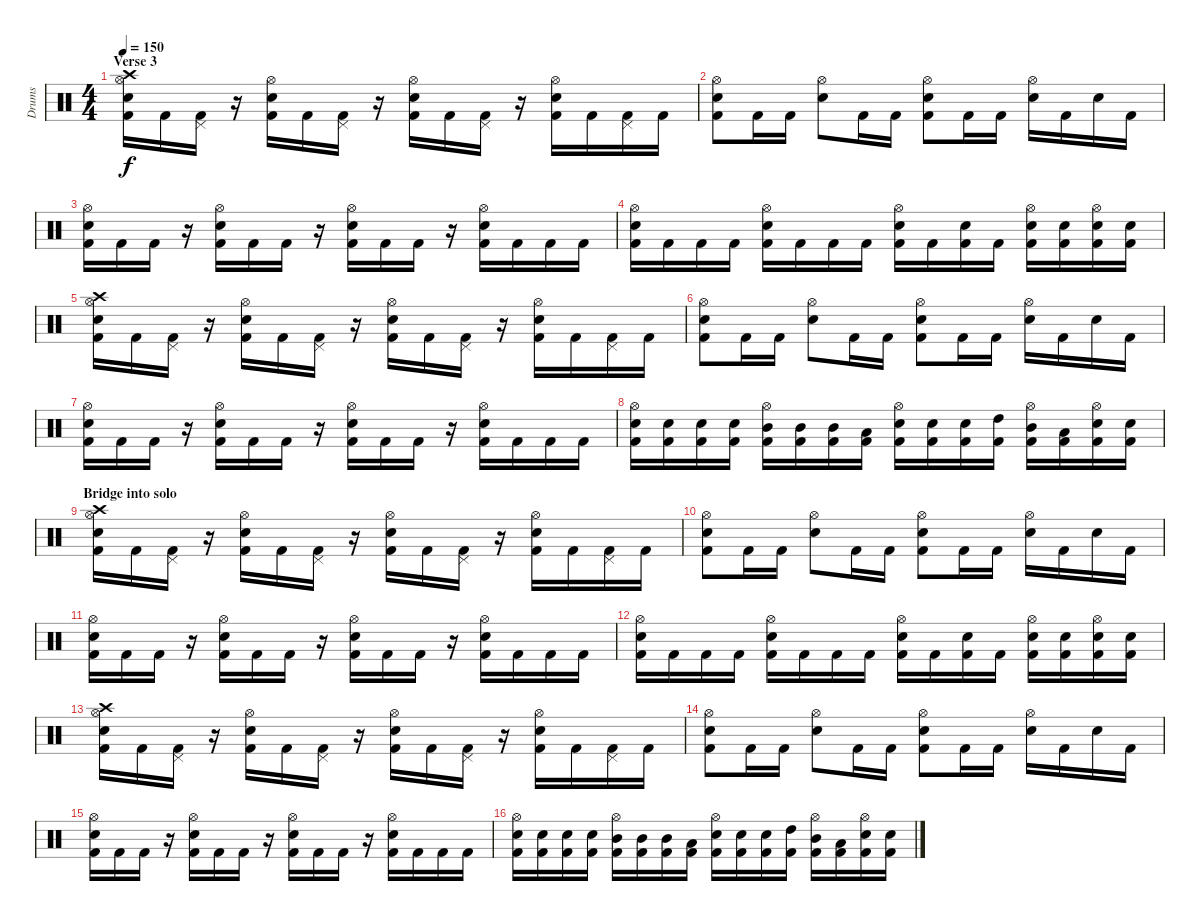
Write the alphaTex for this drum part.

\track ("Drums" "Drums") {instrument percussion}
\staff {score}
\articulation defaults
\ts (4 4)
\section ("" "Verse 3")
\tempo 150
\clef neutral
\ks c
("Crash high (hit)" "Hi-Hat (open)" "Electric Snare (hit)" "Kick (hit) 2").16{dy f} "Kick (hit) 2".16 ("Pedal Hi-Hat (hit)" "Kick (hit) 2").16 r.16 ("Hi-Hat (open)" "Electric Snare (hit)" "Kick (hit) 2").16 "Kick (hit) 2".16 ("Pedal Hi-Hat (hit)" "Kick (hit) 2").16 r.16 ("Hi-Hat (open)" "Electric Snare (hit)" "Kick (hit) 2").16 "Kick (hit) 2".16 ("Pedal Hi-Hat (hit)" "Kick (hit) 2").16 r.16 ("Hi-Hat (open)" "Electric Snare (hit)" "Kick (hit) 2").16 "Kick (hit) 2".16 ("Pedal Hi-Hat (hit)" "Kick (hit) 2").16 "Kick (hit) 2".16 |
("Hi-Hat (open)" "Electric Snare (hit)" "Kick (hit) 2").8 "Kick (hit) 2".16 "Kick (hit) 2".16 ("Hi-Hat (open)" "Electric Snare (hit)").8 "Kick (hit) 2".16 "Kick (hit) 2".16 ("Hi-Hat (open)" "Electric Snare (hit)" "Kick (hit) 2").8 "Kick (hit) 2".16 "Kick (hit) 2".16 ("Hi-Hat (open)" "Electric Snare (hit)").16 "Kick (hit) 2".16 "Electric Snare (hit)".16 "Kick (hit) 2".16 |
("Hi-Hat (open)" "Electric Snare (hit)" "Kick (hit) 2").16 "Kick (hit) 2".16 "Kick (hit) 2".16 r.16 ("Hi-Hat (open)" "Electric Snare (hit)" "Kick (hit) 2").16 "Kick (hit) 2".16 "Kick (hit) 2".16 r.16 ("Hi-Hat (open)" "Electric Snare (hit)" "Kick (hit) 2").16 "Kick (hit) 2".16 "Kick (hit) 2".16 r.16 ("Hi-Hat (open)" "Electric Snare (hit)" "Kick (hit) 2").16 "Kick (hit) 2".16 "Kick (hit) 2".16 "Kick (hit) 2".16 |
("Hi-Hat (open)" "Electric Snare (hit)" "Kick (hit) 2").16 "Kick (hit) 2".16 "Kick (hit) 2".16 "Kick (hit) 2".16 ("Hi-Hat (open)" "Electric Snare (hit)" "Kick (hit) 2").16 "Kick (hit) 2".16 "Kick (hit) 2".16 "Kick (hit) 2".16 ("Hi-Hat (open)" "Electric Snare (hit)" "Kick (hit) 2").16 "Kick (hit) 2".16 ("Electric Snare (hit)" "Kick (hit) 2").16 "Kick (hit) 2".16 ("Hi-Hat (open)" "Electric Snare (hit)" "Kick (hit) 2").16 ("Electric Snare (hit)" "Kick (hit) 2").16 ("Hi-Hat (open)" "Electric Snare (hit)" "Kick (hit) 2").16 ("Electric Snare (hit)" "Kick (hit) 2").16 |
("Crash high (hit)" "Hi-Hat (open)" "Electric Snare (hit)" "Kick (hit) 2").16 "Kick (hit) 2".16 ("Pedal Hi-Hat (hit)" "Kick (hit) 2").16 r.16 ("Hi-Hat (open)" "Electric Snare (hit)" "Kick (hit) 2").16 "Kick (hit) 2".16 ("Pedal Hi-Hat (hit)" "Kick (hit) 2").16 r.16 ("Hi-Hat (open)" "Electric Snare (hit)" "Kick (hit) 2").16 "Kick (hit) 2".16 ("Pedal Hi-Hat (hit)" "Kick (hit) 2").16 r.16 ("Hi-Hat (open)" "Electric Snare (hit)" "Kick (hit) 2").16 "Kick (hit) 2".16 ("Pedal Hi-Hat (hit)" "Kick (hit) 2").16 "Kick (hit) 2".16 |
("Hi-Hat (open)" "Electric Snare (hit)" "Kick (hit) 2").8 "Kick (hit) 2".16 "Kick (hit) 2".16 ("Hi-Hat (open)" "Electric Snare (hit)").8 "Kick (hit) 2".16 "Kick (hit) 2".16 ("Hi-Hat (open)" "Electric Snare (hit)" "Kick (hit) 2").8 "Kick (hit) 2".16 "Kick (hit) 2".16 ("Hi-Hat (open)" "Electric Snare (hit)").16 "Kick (hit) 2".16 "Electric Snare (hit)".16 "Kick (hit) 2".16 |
("Hi-Hat (open)" "Electric Snare (hit)" "Kick (hit) 2").16 "Kick (hit) 2".16 "Kick (hit) 2".16 r.16 ("Hi-Hat (open)" "Electric Snare (hit)" "Kick (hit) 2").16 "Kick (hit) 2".16 "Kick (hit) 2".16 r.16 ("Hi-Hat (open)" "Electric Snare (hit)" "Kick (hit) 2").16 "Kick (hit) 2".16 "Kick (hit) 2".16 r.16 ("Hi-Hat (open)" "Electric Snare (hit)" "Kick (hit) 2").16 "Kick (hit) 2".16 "Kick (hit) 2".16 "Kick (hit) 2".16 |
("Hi-Hat (open)" "Electric Snare (hit)" "Kick (hit) 2").16 ("Electric Snare (hit)" "Kick (hit) 2").16 ("Electric Snare (hit)" "Kick (hit) 2").16 ("Electric Snare (hit)" "Kick (hit) 2").16 ("Hi-Hat (open)" "Mid Tom (hit)" "Kick (hit) 2").16 ("Mid Tom (hit)" "Kick (hit) 2").16 ("Mid Tom (hit)" "Kick (hit) 2").16 ("Low Tom (hit)" "Kick (hit) 2").16 ("Hi-Hat (open)" "Electric Snare (hit)" "Kick (hit) 2").16 ("Electric Snare (hit)" "Kick (hit) 2").16 ("Electric Snare (hit)" "Kick (hit) 2").16 ("High Tom (hit)" "Kick (hit) 2").16 ("Hi-Hat (open)" "Mid Tom (hit)" "Kick (hit) 2").16 ("Low Tom (hit)" "Kick (hit) 2").16 ("Hi-Hat (open)" "Electric Snare (hit)" "Kick (hit) 2").16 ("Electric Snare (hit)" "Kick (hit) 2").16 |
\section ("" "Bridge into solo")
("Crash high (hit)" "Hi-Hat (open)" "Electric Snare (hit)" "Kick (hit) 2").16 "Kick (hit) 2".16 ("Pedal Hi-Hat (hit)" "Kick (hit) 2").16 r.16 ("Hi-Hat (open)" "Electric Snare (hit)" "Kick (hit) 2").16 "Kick (hit) 2".16 ("Pedal Hi-Hat (hit)" "Kick (hit) 2").16 r.16 ("Hi-Hat (open)" "Electric Snare (hit)" "Kick (hit) 2").16 "Kick (hit) 2".16 ("Pedal Hi-Hat (hit)" "Kick (hit) 2").16 r.16 ("Hi-Hat (open)" "Electric Snare (hit)" "Kick (hit) 2").16 "Kick (hit) 2".16 ("Pedal Hi-Hat (hit)" "Kick (hit) 2").16 "Kick (hit) 2".16 |
("Hi-Hat (open)" "Electric Snare (hit)" "Kick (hit) 2").8 "Kick (hit) 2".16 "Kick (hit) 2".16 ("Hi-Hat (open)" "Electric Snare (hit)").8 "Kick (hit) 2".16 "Kick (hit) 2".16 ("Hi-Hat (open)" "Electric Snare (hit)" "Kick (hit) 2").8 "Kick (hit) 2".16 "Kick (hit) 2".16 ("Hi-Hat (open)" "Electric Snare (hit)").16 "Kick (hit) 2".16 "Electric Snare (hit)".16 "Kick (hit) 2".16 |
("Hi-Hat (open)" "Electric Snare (hit)" "Kick (hit) 2").16 "Kick (hit) 2".16 "Kick (hit) 2".16 r.16 ("Hi-Hat (open)" "Electric Snare (hit)" "Kick (hit) 2").16 "Kick (hit) 2".16 "Kick (hit) 2".16 r.16 ("Hi-Hat (open)" "Electric Snare (hit)" "Kick (hit) 2").16 "Kick (hit) 2".16 "Kick (hit) 2".16 r.16 ("Hi-Hat (open)" "Electric Snare (hit)" "Kick (hit) 2").16 "Kick (hit) 2".16 "Kick (hit) 2".16 "Kick (hit) 2".16 |
("Hi-Hat (open)" "Electric Snare (hit)" "Kick (hit) 2").16 "Kick (hit) 2".16 "Kick (hit) 2".16 "Kick (hit) 2".16 ("Hi-Hat (open)" "Electric Snare (hit)" "Kick (hit) 2").16 "Kick (hit) 2".16 "Kick (hit) 2".16 "Kick (hit) 2".16 ("Hi-Hat (open)" "Electric Snare (hit)" "Kick (hit) 2").16 "Kick (hit) 2".16 ("Electric Snare (hit)" "Kick (hit) 2").16 "Kick (hit) 2".16 ("Hi-Hat (open)" "Electric Snare (hit)" "Kick (hit) 2").16 ("Electric Snare (hit)" "Kick (hit) 2").16 ("Hi-Hat (open)" "Electric Snare (hit)" "Kick (hit) 2").16 ("Electric Snare (hit)" "Kick (hit) 2").16 |
("Crash high (hit)" "Hi-Hat (open)" "Electric Snare (hit)" "Kick (hit) 2").16 "Kick (hit) 2".16 ("Pedal Hi-Hat (hit)" "Kick (hit) 2").16 r.16 ("Hi-Hat (open)" "Electric Snare (hit)" "Kick (hit) 2").16 "Kick (hit) 2".16 ("Pedal Hi-Hat (hit)" "Kick (hit) 2").16 r.16 ("Hi-Hat (open)" "Electric Snare (hit)" "Kick (hit) 2").16 "Kick (hit) 2".16 ("Pedal Hi-Hat (hit)" "Kick (hit) 2").16 r.16 ("Hi-Hat (open)" "Electric Snare (hit)" "Kick (hit) 2").16 "Kick (hit) 2".16 ("Pedal Hi-Hat (hit)" "Kick (hit) 2").16 "Kick (hit) 2".16 |
("Hi-Hat (open)" "Electric Snare (hit)" "Kick (hit) 2").8 "Kick (hit) 2".16 "Kick (hit) 2".16 ("Hi-Hat (open)" "Electric Snare (hit)").8 "Kick (hit) 2".16 "Kick (hit) 2".16 ("Hi-Hat (open)" "Electric Snare (hit)" "Kick (hit) 2").8 "Kick (hit) 2".16 "Kick (hit) 2".16 ("Hi-Hat (open)" "Electric Snare (hit)").16 "Kick (hit) 2".16 "Electric Snare (hit)".16 "Kick (hit) 2".16 |
("Hi-Hat (open)" "Electric Snare (hit)" "Kick (hit) 2").16 "Kick (hit) 2".16 "Kick (hit) 2".16 r.16 ("Hi-Hat (open)" "Electric Snare (hit)" "Kick (hit) 2").16 "Kick (hit) 2".16 "Kick (hit) 2".16 r.16 ("Hi-Hat (open)" "Electric Snare (hit)" "Kick (hit) 2").16 "Kick (hit) 2".16 "Kick (hit) 2".16 r.16 ("Hi-Hat (open)" "Electric Snare (hit)" "Kick (hit) 2").16 "Kick (hit) 2".16 "Kick (hit) 2".16 "Kick (hit) 2".16 |
("Hi-Hat (open)" "Electric Snare (hit)" "Kick (hit) 2").16 ("Electric Snare (hit)" "Kick (hit) 2").16 ("Electric Snare (hit)" "Kick (hit) 2").16 ("Electric Snare (hit)" "Kick (hit) 2").16 ("Hi-Hat (open)" "Mid Tom (hit)" "Kick (hit) 2").16 ("Mid Tom (hit)" "Kick (hit) 2").16 ("Mid Tom (hit)" "Kick (hit) 2").16 ("Low Tom (hit)" "Kick (hit) 2").16 ("Hi-Hat (open)" "Electric Snare (hit)" "Kick (hit) 2").16 ("Electric Snare (hit)" "Kick (hit) 2").16 ("Electric Snare (hit)" "Kick (hit) 2").16 ("High Tom (hit)" "Kick (hit) 2").16 ("Hi-Hat (open)" "Mid Tom (hit)" "Kick (hit) 2").16 ("Low Tom (hit)" "Kick (hit) 2").16 ("Hi-Hat (open)" "Electric Snare (hit)" "Kick (hit) 2").16 ("Electric Snare (hit)" "Kick (hit) 2").16
